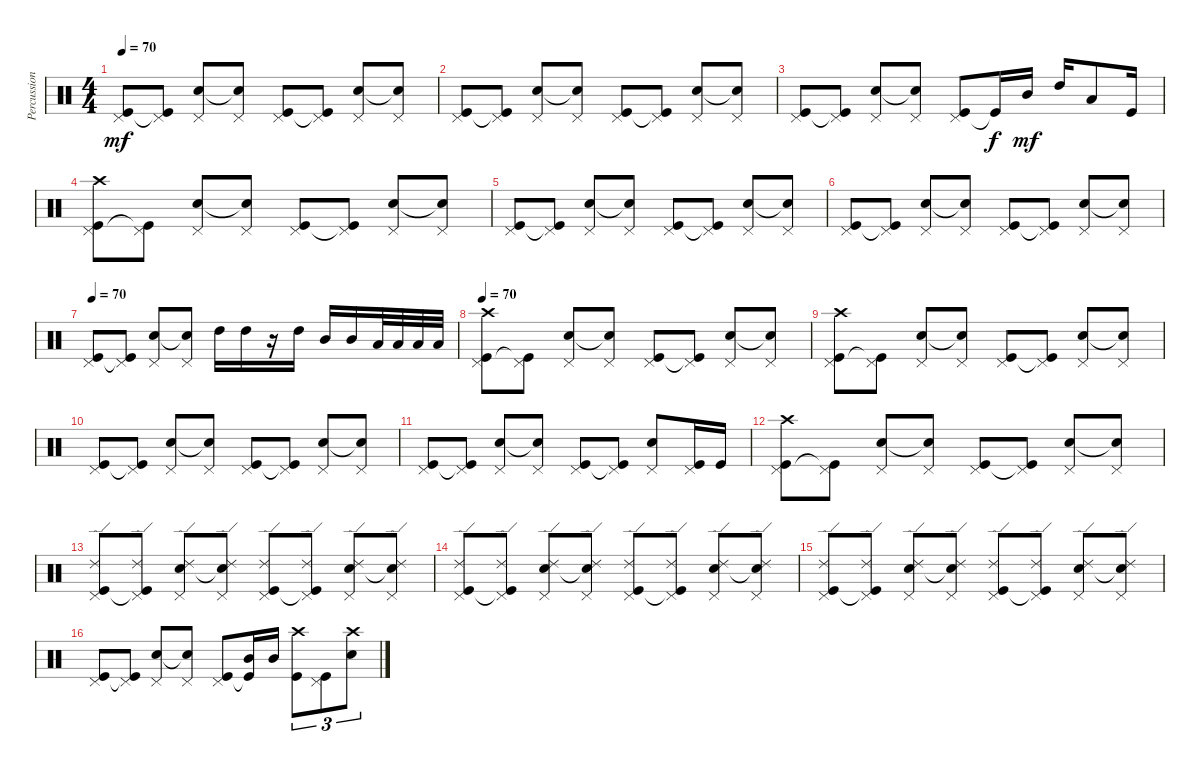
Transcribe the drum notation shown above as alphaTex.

\track ("Percussion" "Percussion") {instrument percussion}
\staff {score}
\articulation defaults
\ts (4 4)
\tempo 70
\clef neutral
\ks c
("Pedal Hi-Hat (hit)" "Kick (hit)").8{dy mf} ("Pedal Hi-Hat (hit)" "Kick (hit)"{t}).8 ("Pedal Hi-Hat (hit)" "Snare (hit) 2").8 ("Pedal Hi-Hat (hit)" "Snare (hit) 2"{t}).8 ("Pedal Hi-Hat (hit)" "Kick (hit)").8 ("Pedal Hi-Hat (hit)" "Kick (hit)"{t}).8 ("Pedal Hi-Hat (hit)" "Snare (hit) 2").8 ("Pedal Hi-Hat (hit)" "Snare (hit) 2"{t}).8 |
("Pedal Hi-Hat (hit)" "Kick (hit)").8 ("Pedal Hi-Hat (hit)" "Kick (hit)"{t}).8 ("Pedal Hi-Hat (hit)" "Snare (hit) 2").8 ("Pedal Hi-Hat (hit)" "Snare (hit) 2"{t}).8 ("Pedal Hi-Hat (hit)" "Kick (hit)").8 ("Pedal Hi-Hat (hit)" "Kick (hit)"{t}).8 ("Pedal Hi-Hat (hit)" "Snare (hit) 2").8 ("Pedal Hi-Hat (hit)" "Snare (hit) 2"{t}).8 |
("Pedal Hi-Hat (hit)" "Kick (hit)").8 ("Pedal Hi-Hat (hit)" "Kick (hit)"{t}).8 ("Pedal Hi-Hat (hit)" "Snare (hit) 2").8 ("Pedal Hi-Hat (hit)" "Snare (hit) 2"{t}).8 ("Pedal Hi-Hat (hit)" "Kick (hit)").8 "Kick (hit)"{t}.16{dy f} "Mid Tom (hit)".16{dy mf} "High Tom (hit)".16 "Low Tom (hit)".8 "Kick (hit)".16 |
("Crash high (hit)" "Pedal Hi-Hat (hit)" "Kick (hit)").8 ("Pedal Hi-Hat (hit)" "Kick (hit)"{t}).8 ("Pedal Hi-Hat (hit)" "Snare (hit) 2").8 ("Pedal Hi-Hat (hit)" "Snare (hit) 2"{t}).8 ("Pedal Hi-Hat (hit)" "Kick (hit)").8 ("Pedal Hi-Hat (hit)" "Kick (hit)"{t}).8 ("Pedal Hi-Hat (hit)" "Snare (hit) 2").8 ("Pedal Hi-Hat (hit)" "Snare (hit) 2"{t}).8 |
("Pedal Hi-Hat (hit)" "Kick (hit)").8 ("Pedal Hi-Hat (hit)" "Kick (hit)"{t}).8 ("Pedal Hi-Hat (hit)" "Snare (hit) 2").8 ("Pedal Hi-Hat (hit)" "Snare (hit) 2"{t}).8 ("Pedal Hi-Hat (hit)" "Kick (hit)").8 ("Pedal Hi-Hat (hit)" "Kick (hit)"{t}).8 ("Pedal Hi-Hat (hit)" "Snare (hit) 2").8 ("Pedal Hi-Hat (hit)" "Snare (hit) 2"{t}).8 |
("Pedal Hi-Hat (hit)" "Kick (hit)").8 ("Pedal Hi-Hat (hit)" "Kick (hit)"{t}).8 ("Pedal Hi-Hat (hit)" "Snare (hit) 2").8 ("Pedal Hi-Hat (hit)" "Snare (hit) 2"{t}).8 ("Pedal Hi-Hat (hit)" "Kick (hit)").8 ("Pedal Hi-Hat (hit)" "Kick (hit)"{t}).8 ("Pedal Hi-Hat (hit)" "Snare (hit) 2").8 ("Pedal Hi-Hat (hit)" "Snare (hit) 2"{t}).8 |
\tempo 70
("Pedal Hi-Hat (hit)" "Kick (hit)").8 ("Pedal Hi-Hat (hit)" "Kick (hit)"{t}).8 ("Pedal Hi-Hat (hit)" "Snare (hit) 2").8 ("Pedal Hi-Hat (hit)" "Snare (hit) 2"{t}).8 "High Tom (hit)".16 "High Tom (hit)".16 r.16 "High Tom (hit)".16 "Mid Tom (hit)".16 "Mid Tom (hit)".16 "Low Tom (hit)".32 "Low Tom (hit)".32 "Low Tom (hit)".32 "Low Tom (hit)".32 |
\tempo 70
("Crash high (hit)" "Pedal Hi-Hat (hit)" "Kick (hit)").8 ("Pedal Hi-Hat (hit)" "Kick (hit)"{t}).8 ("Pedal Hi-Hat (hit)" "Snare (hit) 2").8 ("Pedal Hi-Hat (hit)" "Snare (hit) 2"{t}).8 ("Pedal Hi-Hat (hit)" "Kick (hit)").8 ("Pedal Hi-Hat (hit)" "Kick (hit)"{t}).8 ("Pedal Hi-Hat (hit)" "Snare (hit) 2").8 ("Pedal Hi-Hat (hit)" "Snare (hit) 2"{t}).8 |
("Crash high (hit)" "Pedal Hi-Hat (hit)" "Kick (hit)").8 ("Pedal Hi-Hat (hit)" "Kick (hit)"{t}).8 ("Pedal Hi-Hat (hit)" "Snare (hit) 2").8 ("Pedal Hi-Hat (hit)" "Snare (hit) 2"{t}).8 ("Pedal Hi-Hat (hit)" "Kick (hit)").8 ("Pedal Hi-Hat (hit)" "Kick (hit)"{t}).8 ("Pedal Hi-Hat (hit)" "Snare (hit) 2").8 ("Pedal Hi-Hat (hit)" "Snare (hit) 2"{t}).8 |
("Pedal Hi-Hat (hit)" "Kick (hit)").8 ("Pedal Hi-Hat (hit)" "Kick (hit)"{t}).8 ("Pedal Hi-Hat (hit)" "Snare (hit) 2").8 ("Pedal Hi-Hat (hit)" "Snare (hit) 2"{t}).8 ("Pedal Hi-Hat (hit)" "Kick (hit)").8 ("Pedal Hi-Hat (hit)" "Kick (hit)"{t}).8 ("Pedal Hi-Hat (hit)" "Snare (hit) 2").8 ("Pedal Hi-Hat (hit)" "Snare (hit) 2"{t}).8 |
("Pedal Hi-Hat (hit)" "Kick (hit)").8 ("Pedal Hi-Hat (hit)" "Kick (hit)"{t}).8 ("Pedal Hi-Hat (hit)" "Snare (hit) 2").8 ("Pedal Hi-Hat (hit)" "Snare (hit) 2"{t}).8 ("Pedal Hi-Hat (hit)" "Kick (hit)").8 ("Pedal Hi-Hat (hit)" "Kick (hit)"{t}).8 ("Pedal Hi-Hat (hit)" "Snare (hit) 2").8 ("Pedal Hi-Hat (hit)" "Kick (hit)").16 "Kick (hit)".16 |
("Crash high (hit)" "Pedal Hi-Hat (hit)" "Kick (hit)").8 ("Pedal Hi-Hat (hit)" "Kick (hit)"{t}).8 ("Pedal Hi-Hat (hit)" "Snare (hit) 2").8 ("Pedal Hi-Hat (hit)" "Snare (hit) 2"{t}).8 ("Pedal Hi-Hat (hit)" "Kick (hit)").8 ("Pedal Hi-Hat (hit)" "Kick (hit)"{t}).8 ("Pedal Hi-Hat (hit)" "Snare (hit) 2").8 ("Pedal Hi-Hat (hit)" "Snare (hit) 2"{t}).8 |
("Ride (edge) 2" "Pedal Hi-Hat (hit)" "Kick (hit)").8 ("Ride (edge) 2" "Pedal Hi-Hat (hit)" "Kick (hit)"{t}).8 ("Ride (edge) 2" "Pedal Hi-Hat (hit)" "Snare (hit) 2").8 ("Ride (edge) 2" "Pedal Hi-Hat (hit)" "Snare (hit) 2"{t}).8 ("Ride (edge) 2" "Pedal Hi-Hat (hit)" "Kick (hit)").8 ("Ride (edge) 2" "Pedal Hi-Hat (hit)" "Kick (hit)"{t}).8 ("Ride (edge) 2" "Pedal Hi-Hat (hit)" "Snare (hit) 2").8 ("Ride (edge) 2" "Pedal Hi-Hat (hit)" "Snare (hit) 2"{t}).8 |
("Ride (edge) 2" "Pedal Hi-Hat (hit)" "Kick (hit)").8 ("Ride (edge) 2" "Pedal Hi-Hat (hit)" "Kick (hit)"{t}).8 ("Ride (edge) 2" "Pedal Hi-Hat (hit)" "Snare (hit) 2").8 ("Ride (edge) 2" "Pedal Hi-Hat (hit)" "Snare (hit) 2"{t}).8 ("Ride (edge) 2" "Pedal Hi-Hat (hit)" "Kick (hit)").8 ("Ride (edge) 2" "Pedal Hi-Hat (hit)" "Kick (hit)"{t}).8 ("Ride (edge) 2" "Pedal Hi-Hat (hit)" "Snare (hit) 2").8 ("Ride (edge) 2" "Pedal Hi-Hat (hit)" "Snare (hit) 2"{t}).8 |
("Ride (edge) 2" "Pedal Hi-Hat (hit)" "Kick (hit)").8 ("Ride (edge) 2" "Pedal Hi-Hat (hit)" "Kick (hit)"{t}).8 ("Ride (edge) 2" "Pedal Hi-Hat (hit)" "Snare (hit) 2").8 ("Ride (edge) 2" "Pedal Hi-Hat (hit)" "Snare (hit) 2"{t}).8 ("Ride (edge) 2" "Pedal Hi-Hat (hit)" "Kick (hit)").8 ("Ride (edge) 2" "Pedal Hi-Hat (hit)" "Kick (hit)"{t}).8 ("Ride (edge) 2" "Pedal Hi-Hat (hit)" "Snare (hit) 2").8 ("Ride (edge) 2" "Pedal Hi-Hat (hit)" "Snare (hit) 2"{t}).8 |
("Pedal Hi-Hat (hit)" "Kick (hit)").8 ("Pedal Hi-Hat (hit)" "Kick (hit)"{t}).8 ("Pedal Hi-Hat (hit)" "Snare (hit) 2").8 ("Pedal Hi-Hat (hit)" "Snare (hit) 2"{t}).8 ("Pedal Hi-Hat (hit)" "Kick (hit)").8 ("Mid Tom (hit)" "Kick (hit)"{t}).16 "Mid Tom (hit)".16 ("Crash high (hit)" "Kick (hit)").8{tu (3 2)} ("Pedal Hi-Hat (hit)" "Kick (hit)").8{tu (3 2)} ("Crash high (hit)" "Snare (hit) 2").8{tu (3 2)}
